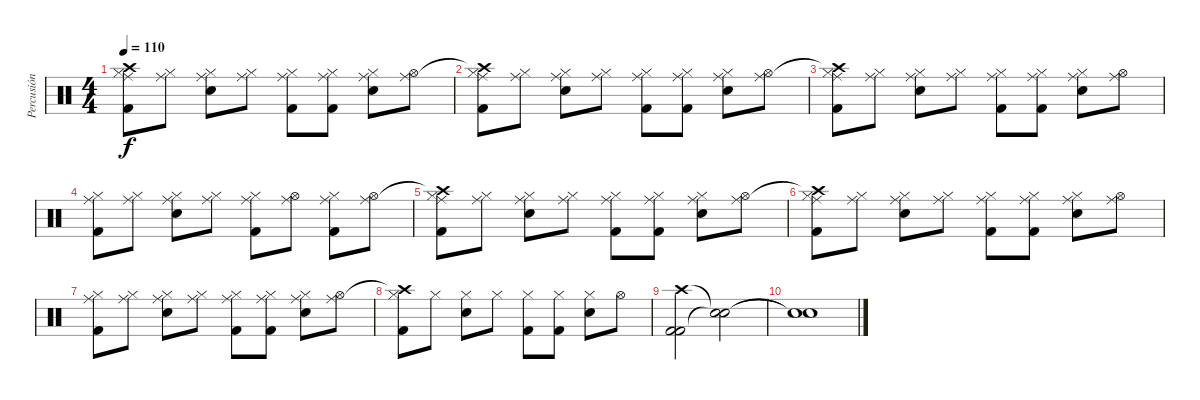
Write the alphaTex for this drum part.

\track ("Percusión" "Percusión") {instrument percussion}
\staff {score}
\articulation defaults
\ts (4 4)
\tempo 110
\clef neutral
\ks c
("Hi-Hat (closed)" "Crash high (hit)"{t} "Ride (middle)" "Kick (hit) 2").8{dy f} ("Hi-Hat (closed)" "Ride (middle)").8 ("Hi-Hat (closed)" "Electric Snare (hit)" "Ride (middle)").8 ("Hi-Hat (closed)" "Ride (middle)").8 ("Hi-Hat (closed)" "Ride (middle)" "Kick (hit) 2").8 ("Hi-Hat (closed)" "Ride (middle)" "Kick (hit) 2").8 ("Hi-Hat (closed)" "Electric Snare (hit)" "Ride (middle)").8 ("Hi-Hat (open)" "Ride (middle)").8 |
("Hi-Hat (closed)" "Crash high (hit)"{t} "Ride (middle)" "Kick (hit) 2").8 ("Hi-Hat (closed)" "Ride (middle)").8 ("Hi-Hat (closed)" "Electric Snare (hit)" "Ride (middle)").8 ("Hi-Hat (closed)" "Ride (middle)").8 ("Hi-Hat (closed)" "Ride (middle)" "Kick (hit) 2").8 ("Hi-Hat (closed)" "Ride (middle)" "Kick (hit) 2").8 ("Hi-Hat (closed)" "Electric Snare (hit)" "Ride (middle)").8 ("Hi-Hat (open)" "Ride (middle)").8 |
("Hi-Hat (closed)" "Crash high (hit)"{t} "Ride (middle)" "Kick (hit) 2").8 ("Hi-Hat (closed)" "Ride (middle)").8 ("Hi-Hat (closed)" "Electric Snare (hit)" "Ride (middle)").8 ("Hi-Hat (closed)" "Ride (middle)").8 ("Hi-Hat (closed)" "Ride (middle)" "Kick (hit) 2").8 ("Hi-Hat (closed)" "Ride (middle)" "Kick (hit) 2").8 ("Hi-Hat (closed)" "Electric Snare (hit)" "Ride (middle)").8 ("Hi-Hat (open)" "Ride (middle)").8 |
("Hi-Hat (closed)" "Ride (middle)" "Kick (hit) 2").8 ("Hi-Hat (closed)" "Ride (middle)").8 ("Hi-Hat (closed)" "Electric Snare (hit)" "Ride (middle)").8 ("Hi-Hat (closed)" "Ride (middle)").8 ("Hi-Hat (closed)" "Ride (middle)" "Kick (hit) 2").8 ("Hi-Hat (open)" "Ride (middle)").8 ("Hi-Hat (closed)" "Ride (middle)" "Kick (hit) 2").8 ("Hi-Hat (open)" "Ride (middle)").8 |
("Hi-Hat (closed)" "Crash high (hit)"{t} "Ride (middle)" "Kick (hit) 2").8 ("Hi-Hat (closed)" "Ride (middle)").8 ("Hi-Hat (closed)" "Electric Snare (hit)" "Ride (middle)").8 ("Hi-Hat (closed)" "Ride (middle)").8 ("Hi-Hat (closed)" "Ride (middle)" "Kick (hit) 2").8 ("Hi-Hat (closed)" "Ride (middle)" "Kick (hit) 2").8 ("Hi-Hat (closed)" "Electric Snare (hit)" "Ride (middle)").8 ("Hi-Hat (open)" "Ride (middle)").8 |
("Hi-Hat (closed)" "Crash high (hit)"{t} "Ride (middle)" "Kick (hit) 2").8 ("Hi-Hat (closed)" "Ride (middle)").8 ("Hi-Hat (closed)" "Electric Snare (hit)" "Ride (middle)").8 ("Hi-Hat (closed)" "Ride (middle)").8 ("Hi-Hat (closed)" "Ride (middle)" "Kick (hit) 2").8 ("Hi-Hat (closed)" "Ride (middle)" "Kick (hit) 2").8 ("Hi-Hat (closed)" "Electric Snare (hit)" "Ride (middle)").8 ("Hi-Hat (open)" "Ride (middle)").8 |
("Hi-Hat (closed)" "Ride (middle)" "Kick (hit) 2").8 ("Hi-Hat (closed)" "Ride (middle)").8 ("Hi-Hat (closed)" "Electric Snare (hit)" "Ride (middle)").8 ("Hi-Hat (closed)" "Ride (middle)").8 ("Hi-Hat (closed)" "Ride (middle)" "Kick (hit) 2").8 ("Hi-Hat (closed)" "Ride (middle)" "Kick (hit) 2").8 ("Hi-Hat (closed)" "Electric Snare (hit)" "Ride (middle)").8 ("Hi-Hat (open)" "Ride (middle)").8 |
("Hi-Hat (closed)" "Crash high (hit)"{t} "Kick (hit) 2").8 "Hi-Hat (closed)".8 ("Hi-Hat (closed)" "Electric Snare (hit)").8 "Hi-Hat (closed)".8 ("Hi-Hat (closed)" "Kick (hit) 2").8 ("Hi-Hat (closed)" "Kick (hit) 2").8 ("Hi-Hat (closed)" "Electric Snare (hit)").8 "Hi-Hat (open)".8 |
("Crash high (hit)" "Kick (hit) 2" "Kick (hit) 2").2 ("Snare (hit)"{t} "Snare (hit)"{t}).2 |
("Snare (hit)"{t} "Snare (hit)"{t}).1
